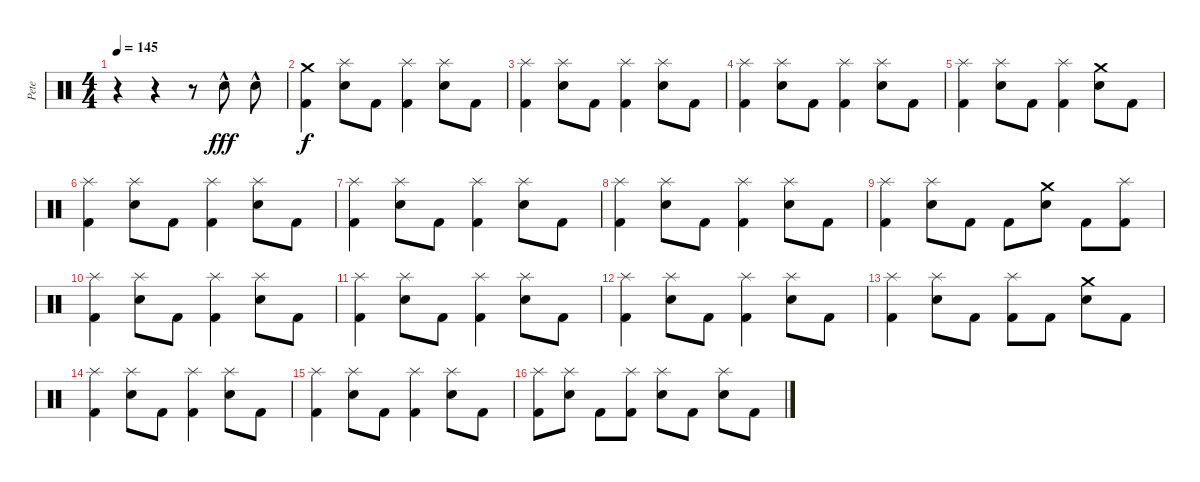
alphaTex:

\track ("Pete" "Pete") {instrument percussion}
\staff {score}
\articulation defaults
\ts (4 4)
\tempo 145
\clef neutral
\ks c
r.4{dy f} r.4 r.8 "Electric Snare (hit)"{hac}.8{dy fff} "Electric Snare (hit)"{hac}.8 |
("Crash medium (hit)" "Kick (hit) 2").4{dy f} ("Splash (hit)" "Electric Snare (hit)").8 "Kick (hit) 2".8 ("Splash (hit)" "Kick (hit) 2").4 ("Splash (hit)" "Electric Snare (hit)").8 "Kick (hit) 2".8 |
("Splash (hit)" "Kick (hit) 2").4 ("Splash (hit)" "Electric Snare (hit)").8 "Kick (hit) 2".8 ("Splash (hit)" "Kick (hit) 2").4 ("Splash (hit)" "Electric Snare (hit)").8 "Kick (hit) 2".8 |
("Splash (hit)" "Kick (hit) 2").4 ("Splash (hit)" "Electric Snare (hit)").8 "Kick (hit) 2".8 ("Splash (hit)" "Kick (hit) 2").4 ("Splash (hit)" "Electric Snare (hit)").8 "Kick (hit) 2".8 |
("Splash (hit)" "Kick (hit) 2").4 ("Splash (hit)" "Electric Snare (hit)").8 "Kick (hit) 2".8 ("Splash (hit)" "Kick (hit) 2").4 ("Crash medium (hit)" "Electric Snare (hit)").8 "Kick (hit) 2".8 |
("Splash (hit)" "Kick (hit) 2").4 ("Splash (hit)" "Electric Snare (hit)").8 "Kick (hit) 2".8 ("Splash (hit)" "Kick (hit) 2").4 ("Splash (hit)" "Electric Snare (hit)").8 "Kick (hit) 2".8 |
("Splash (hit)" "Kick (hit) 2").4 ("Splash (hit)" "Electric Snare (hit)").8 "Kick (hit) 2".8 ("Splash (hit)" "Kick (hit) 2").4 ("Splash (hit)" "Electric Snare (hit)").8 "Kick (hit) 2".8 |
("Splash (hit)" "Kick (hit) 2").4 ("Splash (hit)" "Electric Snare (hit)").8 "Kick (hit) 2".8 ("Splash (hit)" "Kick (hit) 2").4 ("Splash (hit)" "Electric Snare (hit)").8 "Kick (hit) 2".8 |
("Splash (hit)" "Kick (hit) 2").4 ("Splash (hit)" "Electric Snare (hit)").8 "Kick (hit) 2".8 "Kick (hit) 2".8 ("Crash medium (hit)" "Electric Snare (hit)").8 "Kick (hit) 2".8 ("Splash (hit)" "Kick (hit) 2").8 |
("Splash (hit)" "Kick (hit) 2").4 ("Splash (hit)" "Electric Snare (hit)").8 "Kick (hit) 2".8 ("Splash (hit)" "Kick (hit) 2").4 ("Splash (hit)" "Electric Snare (hit)").8 "Kick (hit) 2".8 |
("Splash (hit)" "Kick (hit) 2").4 ("Splash (hit)" "Electric Snare (hit)").8 "Kick (hit) 2".8 ("Splash (hit)" "Kick (hit) 2").4 ("Splash (hit)" "Electric Snare (hit)").8 "Kick (hit) 2".8 |
("Splash (hit)" "Kick (hit) 2").4 ("Splash (hit)" "Electric Snare (hit)").8 "Kick (hit) 2".8 ("Splash (hit)" "Kick (hit) 2").4 ("Splash (hit)" "Electric Snare (hit)").8 "Kick (hit) 2".8 |
("Splash (hit)" "Kick (hit) 2").4 ("Splash (hit)" "Electric Snare (hit)").8 "Kick (hit) 2".8 ("Splash (hit)" "Kick (hit) 2").8 "Kick (hit) 2".8 ("Crash medium (hit)" "Electric Snare (hit)").8 "Kick (hit) 2".8 |
("Splash (hit)" "Kick (hit) 2").4 ("Splash (hit)" "Electric Snare (hit)").8 "Kick (hit) 2".8 ("Splash (hit)" "Kick (hit) 2").4 ("Splash (hit)" "Electric Snare (hit)").8 "Kick (hit) 2".8 |
("Splash (hit)" "Kick (hit) 2").4 ("Splash (hit)" "Electric Snare (hit)").8 "Kick (hit) 2".8 ("Splash (hit)" "Kick (hit) 2").4 ("Splash (hit)" "Electric Snare (hit)").8 "Kick (hit) 2".8 |
("Splash (hit)" "Kick (hit) 2").8 ("Splash (hit)" "Electric Snare (hit)").8 "Kick (hit) 2".8 ("Splash (hit)" "Kick (hit) 2").8 ("Splash (hit)" "Electric Snare (hit)").8 "Kick (hit) 2".8 ("Splash (hit)" "Electric Snare (hit)").8 "Kick (hit) 2".8
